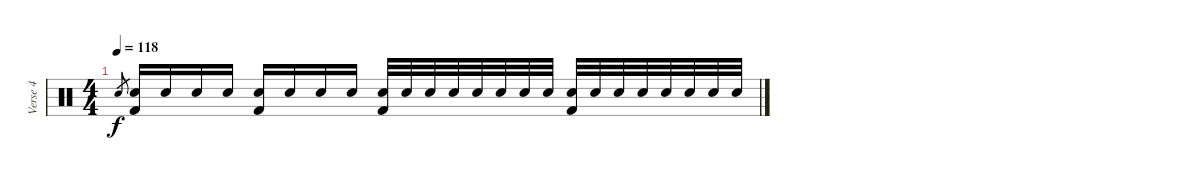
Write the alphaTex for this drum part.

\track ("Verse 4" "Verse 4") {instrument percussion}
\staff {score}
\articulation defaults
\ts (4 4)
\tempo 118
\clef neutral
\ks c "Electric Snare (hit)".8{gr dy f}
("Electric Snare (hit)" "Kick (hit) 2").16{volume 1} "Electric Snare (hit)".16 "Electric Snare (hit)".16 "Electric Snare (hit)".16 ("Electric Snare (hit)" "Kick (hit) 2").16 "Electric Snare (hit)".16 "Electric Snare (hit)".16 "Electric Snare (hit)".16 ("Electric Snare (hit)" "Kick (hit) 2").32 "Electric Snare (hit)".32 "Electric Snare (hit)".32 "Electric Snare (hit)".32 "Electric Snare (hit)".32 "Electric Snare (hit)".32 "Electric Snare (hit)".32 "Electric Snare (hit)".32 ("Electric Snare (hit)" "Kick (hit) 2").32 "Electric Snare (hit)".32 "Electric Snare (hit)".32 "Electric Snare (hit)".32 "Electric Snare (hit)".32 "Electric Snare (hit)".32 "Electric Snare (hit)".32 "Electric Snare (hit)".32
